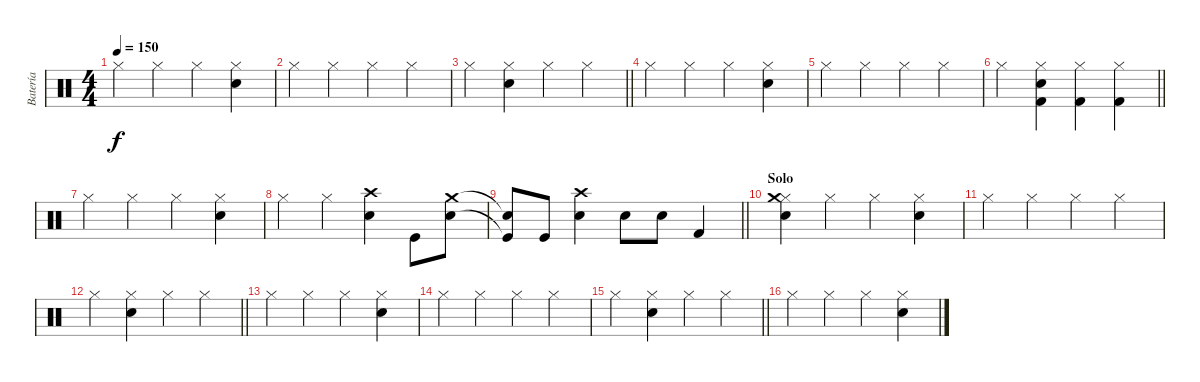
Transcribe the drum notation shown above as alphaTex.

\track ("Batería" "Batería") {instrument percussion}
\staff {score}
\articulation defaults
\ts (4 4)
\tempo 150
\clef neutral
\ks c "Hi-Hat (closed)".4{dy f} "Hi-Hat (closed)".4 "Hi-Hat (closed)".4
("Hi-Hat (closed)" "Electric Snare (hit)").4 |
"Hi-Hat (closed)".4 "Hi-Hat (closed)".4 "Hi-Hat (closed)".4 "Hi-Hat (closed)".4 |
\barLineRight lightlight "Hi-Hat (closed)".4
("Hi-Hat (closed)" "Electric Snare (hit)").4 "Hi-Hat (closed)".4 "Hi-Hat (closed)".4 |
"Hi-Hat (closed)".4 "Hi-Hat (closed)".4 "Hi-Hat (closed)".4 ("Hi-Hat (closed)" "Electric Snare (hit)").4 |
"Hi-Hat (closed)".4 "Hi-Hat (closed)".4 "Hi-Hat (closed)".4 "Hi-Hat (closed)".4 |
\barLineRight lightlight "Hi-Hat (closed)".4
("Kick (hit) 2" "Hi-Hat (closed)" "Electric Snare (hit)").4 ("Hi-Hat (closed)" "Kick (hit) 2").4 ("Hi-Hat (closed)" "Kick (hit) 2").4 |
"Hi-Hat (closed)".4 "Hi-Hat (closed)".4 "Hi-Hat (closed)".4 ("Hi-Hat (closed)" "Electric Snare (hit)").4 |
"Hi-Hat (closed)".4 "Hi-Hat (closed)".4 ("Crash high (hit)" "Snare (hit) 2").4 "Kick (hit)".8 ("Crash medium (hit)" "Electric Snare (hit)").8 |
\barLineRight lightlight
("Snare (hit)"{t} "Kick (hit)"{t}).8 "Kick (hit)".8 ("Crash high (hit)" "Snare (hit) 2").4 "Electric Snare (hit)".8 "Electric Snare (hit)".8 "Kick (hit) 2".4 |
\section ("" "Solo")
("Hi-Hat (closed)" "Electric Snare (hit)" "Crash medium (hit)").4 "Hi-Hat (closed)".4 "Hi-Hat (closed)".4 ("Hi-Hat (closed)" "Electric Snare (hit)").4 |
"Hi-Hat (closed)".4 "Hi-Hat (closed)".4 "Hi-Hat (closed)".4 "Hi-Hat (closed)".4 |
\barLineRight lightlight "Hi-Hat (closed)".4
("Hi-Hat (closed)" "Electric Snare (hit)").4 "Hi-Hat (closed)".4 "Hi-Hat (closed)".4 |
"Hi-Hat (closed)".4 "Hi-Hat (closed)".4 "Hi-Hat (closed)".4 ("Hi-Hat (closed)" "Electric Snare (hit)").4 |
"Hi-Hat (closed)".4 "Hi-Hat (closed)".4 "Hi-Hat (closed)".4 "Hi-Hat (closed)".4 |
\barLineRight lightlight "Hi-Hat (closed)".4
("Hi-Hat (closed)" "Electric Snare (hit)").4 "Hi-Hat (closed)".4 "Hi-Hat (closed)".4 |
"Hi-Hat (closed)".4 "Hi-Hat (closed)".4 "Hi-Hat (closed)".4 ("Hi-Hat (closed)" "Electric Snare (hit)").4
